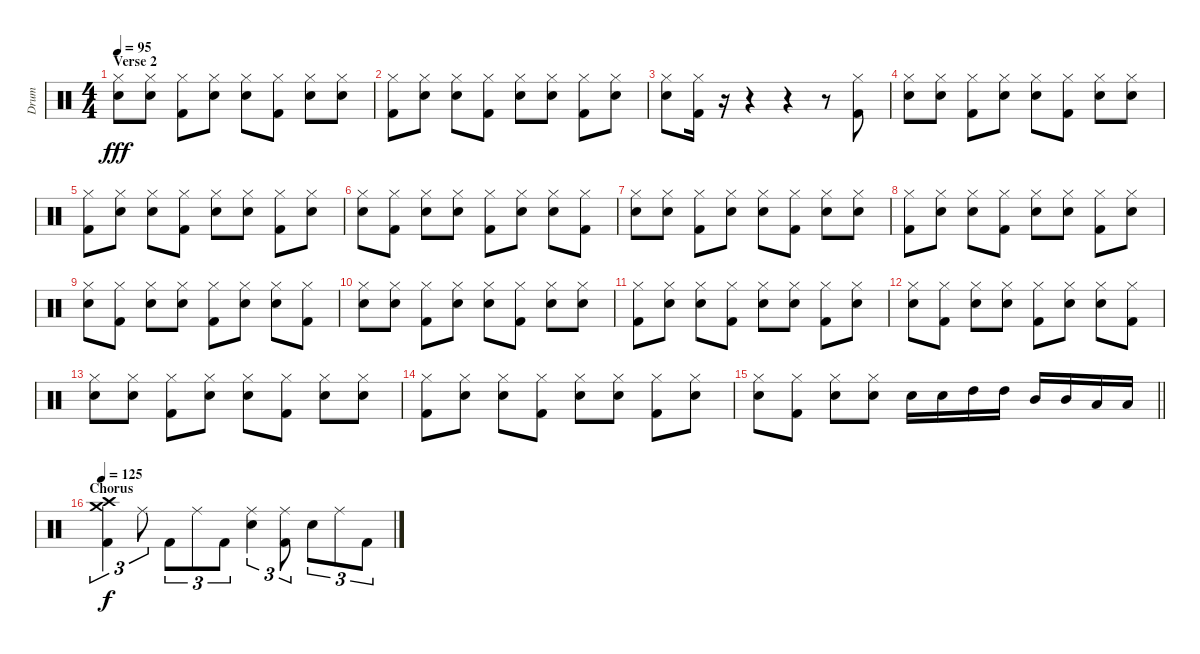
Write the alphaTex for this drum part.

\track ("Drum" "Drum") {instrument percussion}
\staff {score}
\articulation defaults
\ts (4 4)
\section ("" "Verse 2")
\tempo 95
\clef neutral
\ks c
("Hi-Hat (closed)" "Snare (hit) 2").8{dy fff} ("Hi-Hat (closed)" "Snare (hit) 2").8 ("Hi-Hat (closed)" "Kick (hit) 2").8 ("Hi-Hat (closed)" "Snare (hit) 2").8 ("Hi-Hat (closed)" "Snare (hit) 2").8 ("Hi-Hat (closed)" "Kick (hit) 2").8 ("Hi-Hat (closed)" "Snare (hit) 2").8 ("Hi-Hat (closed)" "Snare (hit) 2").8 |
("Hi-Hat (closed)" "Kick (hit) 2").8 ("Hi-Hat (closed)" "Snare (hit) 2").8 ("Hi-Hat (closed)" "Snare (hit) 2").8 ("Hi-Hat (closed)" "Kick (hit) 2").8 ("Hi-Hat (closed)" "Snare (hit) 2").8 ("Hi-Hat (closed)" "Snare (hit) 2").8 ("Hi-Hat (closed)" "Kick (hit) 2").8 ("Hi-Hat (closed)" "Snare (hit) 2").8 |
("Hi-Hat (closed)" "Snare (hit) 2").8 ("Hi-Hat (closed)" "Kick (hit) 2").16 r.16 r.4 r.4 r.8 ("Hi-Hat (closed)" "Kick (hit) 2").8 |
("Hi-Hat (closed)" "Snare (hit) 2").8 ("Hi-Hat (closed)" "Snare (hit) 2").8 ("Hi-Hat (closed)" "Kick (hit) 2").8 ("Hi-Hat (closed)" "Snare (hit) 2").8 ("Hi-Hat (closed)" "Snare (hit) 2").8 ("Hi-Hat (closed)" "Kick (hit) 2").8 ("Hi-Hat (closed)" "Snare (hit) 2").8 ("Hi-Hat (closed)" "Snare (hit) 2").8 |
("Hi-Hat (closed)" "Kick (hit) 2").8 ("Hi-Hat (closed)" "Snare (hit) 2").8 ("Hi-Hat (closed)" "Snare (hit) 2").8 ("Hi-Hat (closed)" "Kick (hit) 2").8 ("Hi-Hat (closed)" "Snare (hit) 2").8 ("Hi-Hat (closed)" "Snare (hit) 2").8 ("Hi-Hat (closed)" "Kick (hit) 2").8 ("Hi-Hat (closed)" "Snare (hit) 2").8 |
("Hi-Hat (closed)" "Snare (hit) 2").8 ("Hi-Hat (closed)" "Kick (hit) 2").8 ("Hi-Hat (closed)" "Snare (hit) 2").8 ("Hi-Hat (closed)" "Snare (hit) 2").8 ("Hi-Hat (closed)" "Kick (hit) 2").8 ("Hi-Hat (closed)" "Snare (hit) 2").8 ("Hi-Hat (closed)" "Snare (hit) 2").8 ("Hi-Hat (closed)" "Kick (hit) 2").8 |
("Hi-Hat (closed)" "Snare (hit) 2").8 ("Hi-Hat (closed)" "Snare (hit) 2").8 ("Hi-Hat (closed)" "Kick (hit) 2").8 ("Hi-Hat (closed)" "Snare (hit) 2").8 ("Hi-Hat (closed)" "Snare (hit) 2").8 ("Hi-Hat (closed)" "Kick (hit) 2").8 ("Hi-Hat (closed)" "Snare (hit) 2").8 ("Hi-Hat (closed)" "Snare (hit) 2").8 |
("Hi-Hat (closed)" "Kick (hit) 2").8 ("Hi-Hat (closed)" "Snare (hit) 2").8 ("Hi-Hat (closed)" "Snare (hit) 2").8 ("Hi-Hat (closed)" "Kick (hit) 2").8 ("Hi-Hat (closed)" "Snare (hit) 2").8 ("Hi-Hat (closed)" "Snare (hit) 2").8 ("Hi-Hat (closed)" "Kick (hit) 2").8 ("Hi-Hat (closed)" "Snare (hit) 2").8 |
("Hi-Hat (closed)" "Snare (hit) 2").8 ("Hi-Hat (closed)" "Kick (hit) 2").8 ("Hi-Hat (closed)" "Snare (hit) 2").8 ("Hi-Hat (closed)" "Snare (hit) 2").8 ("Hi-Hat (closed)" "Kick (hit) 2").8 ("Hi-Hat (closed)" "Snare (hit) 2").8 ("Hi-Hat (closed)" "Snare (hit) 2").8 ("Hi-Hat (closed)" "Kick (hit) 2").8 |
("Hi-Hat (closed)" "Snare (hit) 2").8 ("Hi-Hat (closed)" "Snare (hit) 2").8 ("Hi-Hat (closed)" "Kick (hit) 2").8 ("Hi-Hat (closed)" "Snare (hit) 2").8 ("Hi-Hat (closed)" "Snare (hit) 2").8 ("Hi-Hat (closed)" "Kick (hit) 2").8 ("Hi-Hat (closed)" "Snare (hit) 2").8 ("Hi-Hat (closed)" "Snare (hit) 2").8 |
("Hi-Hat (closed)" "Kick (hit) 2").8 ("Hi-Hat (closed)" "Snare (hit) 2").8 ("Hi-Hat (closed)" "Snare (hit) 2").8 ("Hi-Hat (closed)" "Kick (hit) 2").8 ("Hi-Hat (closed)" "Snare (hit) 2").8 ("Hi-Hat (closed)" "Snare (hit) 2").8 ("Hi-Hat (closed)" "Kick (hit) 2").8 ("Hi-Hat (closed)" "Snare (hit) 2").8 |
("Hi-Hat (closed)" "Snare (hit) 2").8 ("Hi-Hat (closed)" "Kick (hit) 2").8 ("Hi-Hat (closed)" "Snare (hit) 2").8 ("Hi-Hat (closed)" "Snare (hit) 2").8 ("Hi-Hat (closed)" "Kick (hit) 2").8 ("Hi-Hat (closed)" "Snare (hit) 2").8 ("Hi-Hat (closed)" "Snare (hit) 2").8 ("Hi-Hat (closed)" "Kick (hit) 2").8 |
("Hi-Hat (closed)" "Snare (hit) 2").8 ("Hi-Hat (closed)" "Snare (hit) 2").8 ("Hi-Hat (closed)" "Kick (hit) 2").8 ("Hi-Hat (closed)" "Snare (hit) 2").8 ("Hi-Hat (closed)" "Snare (hit) 2").8 ("Hi-Hat (closed)" "Kick (hit) 2").8 ("Hi-Hat (closed)" "Snare (hit) 2").8 ("Hi-Hat (closed)" "Snare (hit) 2").8 |
("Hi-Hat (closed)" "Kick (hit) 2").8 ("Hi-Hat (closed)" "Snare (hit) 2").8 ("Hi-Hat (closed)" "Snare (hit) 2").8 ("Hi-Hat (closed)" "Kick (hit) 2").8 ("Hi-Hat (closed)" "Snare (hit) 2").8 ("Hi-Hat (closed)" "Snare (hit) 2").8 ("Hi-Hat (closed)" "Kick (hit) 2").8 ("Hi-Hat (closed)" "Snare (hit) 2").8 |
\barLineRight lightlight
("Hi-Hat (closed)" "Snare (hit) 2").8 ("Hi-Hat (closed)" "Kick (hit) 2").8 ("Hi-Hat (closed)" "Snare (hit) 2").8 ("Hi-Hat (closed)" "Snare (hit) 2").8 "Snare (hit) 2".16 "Snare (hit) 2".16 "High Tom (hit)".16 "High Tom (hit)".16 "Mid Tom (hit)".16 "Mid Tom (hit)".16 "Low Tom (hit)".16 "Low Tom (hit)".16 |
\section ("" "Chorus")
\tempo 125
("Crash medium (hit)" "Crash high (hit)" "Kick (hit) 2").4{tu (3 2) dy f} "Ride (middle)".8{tu (3 2)} "Kick (hit) 2".8{tu (3 2)} "Ride (middle)".8{tu (3 2)} "Kick (hit) 2".8{tu (3 2)} ("Ride (middle)" "Snare (hit) 2").4{tu (3 2)} ("Ride (middle)" "Kick (hit) 2").8{tu (3 2)} "Snare (hit) 2".8{tu (3 2)} "Ride (middle)".8{tu (3 2)} "Kick (hit) 2".8{tu (3 2)}
